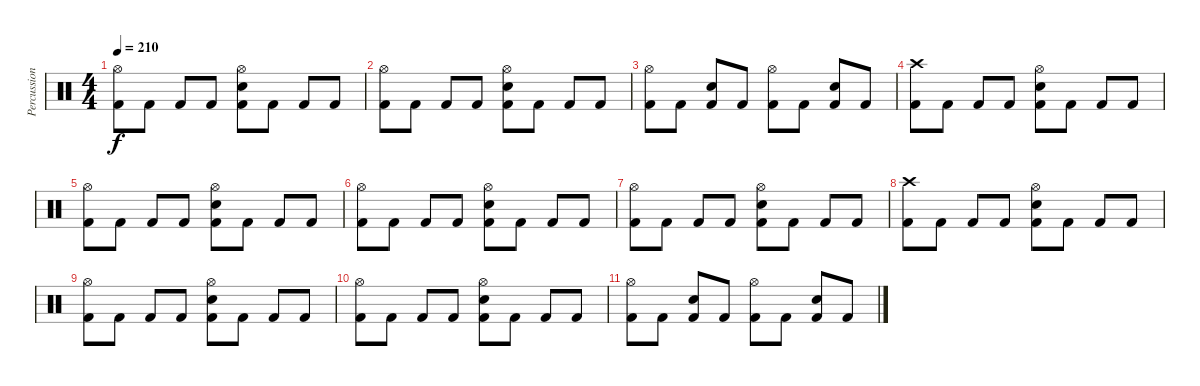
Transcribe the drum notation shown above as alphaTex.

\track ("Percussion" "Percussion") {instrument percussion}
\staff {score}
\articulation defaults
\ts (4 4)
\tempo 210
\clef neutral
\ks c
("Hi-Hat (open)" "Kick (hit) 2").8{dy f} "Kick (hit) 2".8 "Kick (hit) 2".8 "Kick (hit) 2".8 ("Hi-Hat (open)" "Snare (hit) 2" "Kick (hit) 2").8 "Kick (hit) 2".8 "Kick (hit) 2".8 "Kick (hit) 2".8 |
("Hi-Hat (open)" "Kick (hit) 2").8 "Kick (hit) 2".8 "Kick (hit) 2".8 "Kick (hit) 2".8 ("Hi-Hat (open)" "Snare (hit) 2" "Kick (hit) 2").8 "Kick (hit) 2".8 "Kick (hit) 2".8 "Kick (hit) 2".8 |
("Hi-Hat (open)" "Kick (hit) 2").8 "Kick (hit) 2".8 ("Snare (hit) 2" "Kick (hit) 2").8 "Kick (hit) 2".8 ("Hi-Hat (open)" "Kick (hit) 2").8 "Kick (hit) 2".8 ("Snare (hit) 2" "Kick (hit) 2").8 "Kick (hit) 2".8 |
("Crash high (hit)" "Kick (hit) 2").8 "Kick (hit) 2".8 "Kick (hit) 2".8 "Kick (hit) 2".8 ("Hi-Hat (open)" "Snare (hit) 2" "Kick (hit) 2").8 "Kick (hit) 2".8 "Kick (hit) 2".8 "Kick (hit) 2".8 |
("Hi-Hat (open)" "Kick (hit) 2").8 "Kick (hit) 2".8 "Kick (hit) 2".8 "Kick (hit) 2".8 ("Hi-Hat (open)" "Snare (hit) 2" "Kick (hit) 2").8 "Kick (hit) 2".8 "Kick (hit) 2".8 "Kick (hit) 2".8 |
("Hi-Hat (open)" "Kick (hit) 2").8 "Kick (hit) 2".8 "Kick (hit) 2".8 "Kick (hit) 2".8 ("Hi-Hat (open)" "Snare (hit) 2" "Kick (hit) 2").8 "Kick (hit) 2".8 "Kick (hit) 2".8 "Kick (hit) 2".8 |
("Hi-Hat (open)" "Kick (hit) 2").8 "Kick (hit) 2".8 "Kick (hit) 2".8 "Kick (hit) 2".8 ("Hi-Hat (open)" "Snare (hit) 2" "Kick (hit) 2").8 "Kick (hit) 2".8 "Kick (hit) 2".8 "Kick (hit) 2".8 |
("Crash high (hit)" "Kick (hit) 2").8 "Kick (hit) 2".8 "Kick (hit) 2".8 "Kick (hit) 2".8 ("Hi-Hat (open)" "Snare (hit) 2" "Kick (hit) 2").8 "Kick (hit) 2".8 "Kick (hit) 2".8 "Kick (hit) 2".8 |
("Hi-Hat (open)" "Kick (hit) 2").8 "Kick (hit) 2".8 "Kick (hit) 2".8 "Kick (hit) 2".8 ("Hi-Hat (open)" "Snare (hit) 2" "Kick (hit) 2").8 "Kick (hit) 2".8 "Kick (hit) 2".8 "Kick (hit) 2".8 |
("Hi-Hat (open)" "Kick (hit) 2").8 "Kick (hit) 2".8 "Kick (hit) 2".8 "Kick (hit) 2".8 ("Hi-Hat (open)" "Snare (hit) 2" "Kick (hit) 2").8 "Kick (hit) 2".8 "Kick (hit) 2".8 "Kick (hit) 2".8 |
("Hi-Hat (open)" "Kick (hit) 2").8 "Kick (hit) 2".8 ("Snare (hit) 2" "Kick (hit) 2").8 "Kick (hit) 2".8 ("Hi-Hat (open)" "Kick (hit) 2").8 "Kick (hit) 2".8 ("Snare (hit) 2" "Kick (hit) 2").8 "Kick (hit) 2".8
